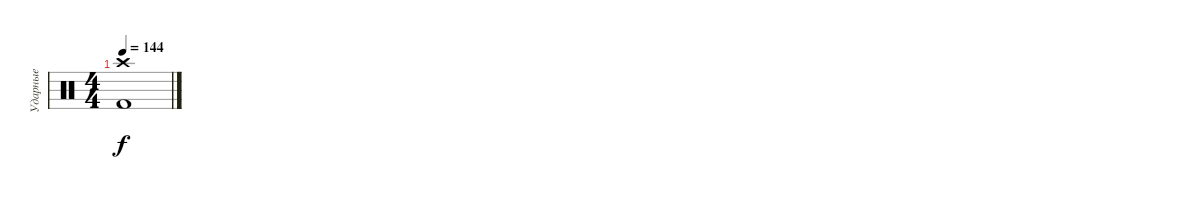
\track ("Ударные" "Ударные") {instrument percussion}
\staff {score}
\articulation defaults
\ts (4 4)
\tempo 144
\clef neutral
\ks c
("Kick (hit) 2" "Crash high (hit)").1{dy f}
